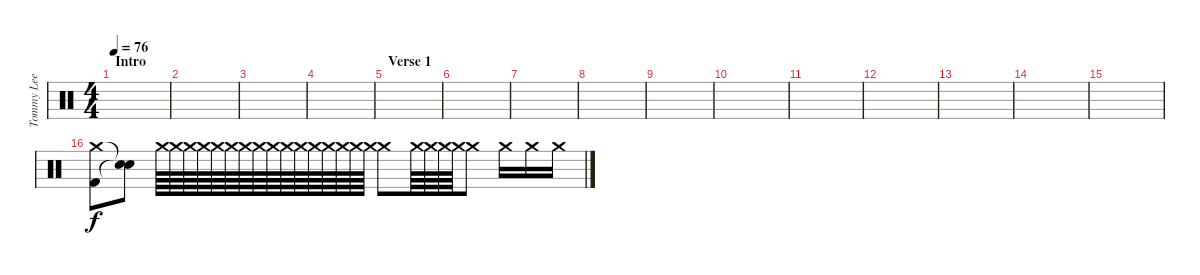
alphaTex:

\track ("Tommy Lee" "Tommy Lee") {instrument percussion}
\staff {score}
\articulation defaults
\ts (4 4)
\section ("" "Intro")
\tempo 76
\clef neutral
\ks c
|
|
|
|
\section ("" "Verse 1")
|
|
|
|
|
|
|
|
|
|
|
("Crash medium (hit)" "Kick (hit) 2").8 ("Snare (hit)"{t} "Snare (hit)"{t}).8{dy f} "Crash medium (hit)".64 "Crash medium (hit)".64 "Crash medium (hit)".64 "Crash medium (hit)".64 "Crash medium (hit)".64 "Crash medium (hit)".64 "Crash medium (hit)".64 "Crash medium (hit)".64 "Crash medium (hit)".64 "Crash medium (hit)".64 "Crash medium (hit)".64 "Crash medium (hit)".64 "Crash medium (hit)".64 "Crash medium (hit)".64 "Crash medium (hit)".64 "Crash medium (hit)".64 "Crash medium (hit)".8 "Crash medium (hit)".64 "Crash medium (hit)".64 "Crash medium (hit)".64 "Crash medium (hit)".64 "Crash medium (hit)".8 "Crash medium (hit)".16 "Crash medium (hit)".16 "Crash medium (hit)".16
